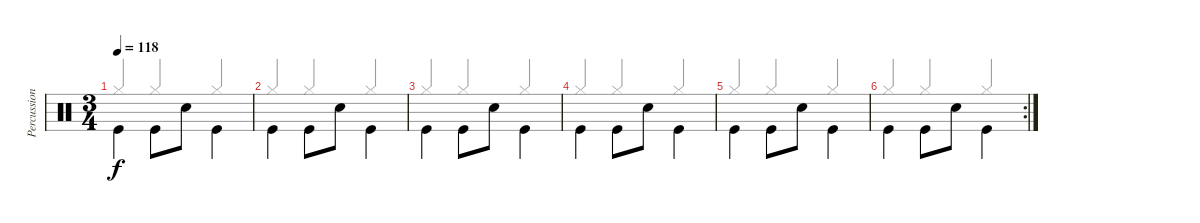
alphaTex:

\track ("Percussion" "Percussion") {instrument percussion}
\staff {score}
\articulation defaults
\voice
\ts (3 4)
\tempo 118
\clef neutral
\ks c "Kick (hit)".4{dy f beam Down} "Kick (hit)".8{beam Down} "Snare (hit) 2".8{beam Down} "Kick (hit)".4{beam Down}
|
"Kick (hit)".4{beam Down} "Kick (hit)".8{beam Down} "Snare (hit) 2".8{beam Down} "Kick (hit)".4{beam Down} |
"Kick (hit)".4{beam Down} "Kick (hit)".8{beam Down} "Snare (hit) 2".8{beam Down} "Kick (hit)".4{beam Down} |
"Kick (hit)".4{beam Down} "Kick (hit)".8{beam Down} "Snare (hit) 2".8{beam Down} "Kick (hit)".4{beam Down} |
"Kick (hit)".4{beam Down} "Kick (hit)".8{beam Down} "Snare (hit) 2".8{beam Down} "Kick (hit)".4{beam Down} |
\rc 2 "Kick (hit)".4{beam Down} "Kick (hit)".8{beam Down} "Snare (hit) 2".8{beam Down} "Kick (hit)".4{beam Down}
\voice
\clef neutral
\ottava regular
\simile none
\ks c "Hi-Hat (closed)".4{dy f beam Up} "Hi-Hat (closed)".4{beam Up} "Hi-Hat (closed)".4{beam Up}
|
"Hi-Hat (closed)".4{beam Up} "Hi-Hat (closed)".4{beam Up} "Hi-Hat (closed)".4{beam Up} |
"Hi-Hat (closed)".4{beam Up} "Hi-Hat (closed)".4{beam Up} "Hi-Hat (closed)".4{beam Up} |
"Hi-Hat (closed)".4{beam Up} "Hi-Hat (closed)".4{beam Up} "Hi-Hat (closed)".4{beam Up} |
"Hi-Hat (closed)".4{beam Up} "Hi-Hat (closed)".4{beam Up} "Hi-Hat (closed)".4{beam Up} |
"Hi-Hat (closed)".4{beam Up} "Hi-Hat (closed)".4{beam Up} "Hi-Hat (closed)".4{beam Up}
